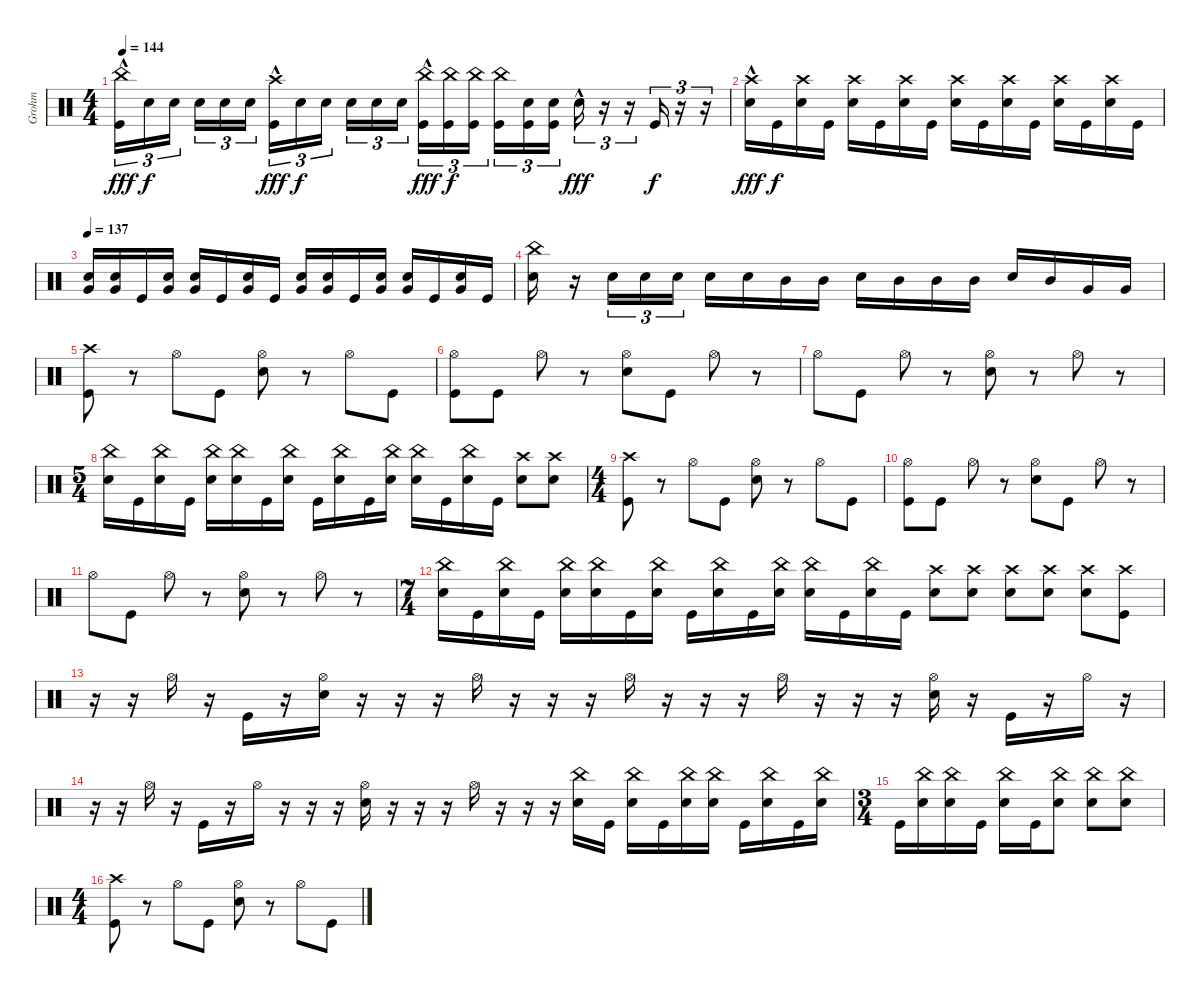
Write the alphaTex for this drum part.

\track ("Grohm" "Grohm") {instrument percussion}
\staff {score}
\articulation defaults
\ts (4 4)
\tempo 144
\clef neutral
\ks c
("China (hit)"{hac} "Kick (hit)"{hac}).16{tu (3 2) dy fff} "Snare (hit) 2".16{tu (3 2) dy f} "Snare (hit) 2".16{tu (3 2) beam splitsecondary} "Snare (hit) 2".16{tu (3 2)} "Snare (hit) 2".16{tu (3 2)} "Snare (hit) 2".16{tu (3 2)} ("Crash high (hit)"{hac} "Kick (hit)"{hac}).16{tu (3 2) dy fff} "Snare (hit) 2".16{tu (3 2) dy f} "Snare (hit) 2".16{tu (3 2) beam splitsecondary} "Snare (hit) 2".16{tu (3 2)} "Snare (hit) 2".16{tu (3 2)} "Snare (hit) 2".16{tu (3 2)} ("China (hit)"{hac} "Kick (hit)"{hac}).16{tu (3 2) dy fff} ("China (hit)" "Kick (hit)").16{tu (3 2) dy f} ("China (hit)" "Kick (hit)").16{tu (3 2) beam splitsecondary} ("China (hit)" "Kick (hit)").16{tu (3 2)} ("Snare (hit) 2" "Kick (hit)").16{tu (3 2)} ("Snare (hit) 2" "Kick (hit)").16{tu (3 2)} "Snare (hit) 2"{hac}.16{tu (3 2) dy fff} r.16{tu (3 2)} r.16{tu (3 2)} "Kick (hit)".16{tu (3 2) dy f} r.16{tu (3 2)} r.16{tu (3 2)} |
("Crash high (hit)"{hac} "Snare (hit) 2").16{dy fff} "Kick (hit)".16{dy f} ("Crash high (hit)" "Snare (hit) 2").16 "Kick (hit)".16 ("Crash high (hit)" "Snare (hit) 2").16 "Kick (hit)".16 ("Crash high (hit)" "Snare (hit) 2").16 "Kick (hit)".16 ("Crash high (hit)" "Snare (hit) 2").16 "Kick (hit)".16 ("Crash high (hit)" "Snare (hit) 2").16 "Kick (hit)".16 ("Crash high (hit)" "Snare (hit) 2").16 "Kick (hit)".16 ("Crash high (hit)" "Snare (hit) 2").16 "Kick (hit)".16 |
\tempo 137
("Snare (hit) 2" "Very Low Tom (hit)").16 ("Snare (hit) 2" "Very Low Tom (hit)").16 "Kick (hit)".16 ("Snare (hit) 2" "Very Low Tom (hit)").16 ("Snare (hit) 2" "Very Low Tom (hit)").16 "Kick (hit)".16 ("Snare (hit) 2" "Very Low Tom (hit)").16 "Kick (hit)".16 ("Snare (hit) 2" "Very Low Tom (hit)").16 ("Snare (hit) 2" "Very Low Tom (hit)").16 "Kick (hit)".16 ("Snare (hit) 2" "Very Low Tom (hit)").16 ("Snare (hit) 2" "Very Low Tom (hit)").16 "Kick (hit)".16 ("Snare (hit) 2" "Very Low Tom (hit)").16 "Kick (hit)".16 |
("China (hit)" "Snare (hit) 2").16 r.16 "Snare (hit) 2".16{tu (3 2)} "Snare (hit) 2".16{tu (3 2)} "Snare (hit) 2".16{tu (3 2)} "Snare (hit) 2".16 "Snare (hit) 2".16 "Mid Tom (hit)".16 "Mid Tom (hit)".16 "Snare (hit) 2".16 "Mid Tom (hit)".16 "Mid Tom (hit)".16 "Mid Tom (hit)".16 "Snare (hit) 2".16 "Mid Tom (hit)".16 "Very Low Tom (hit)".16 "Very Low Tom (hit)".16 |
("Crash high (hit)" "Kick (hit)").8 r.8 "Hi-Hat (open)".8 "Kick (hit)".8 ("Hi-Hat (open)" "Snare (hit) 2").8 r.8 "Hi-Hat (open)".8 "Kick (hit)".8 |
("Hi-Hat (open)" "Kick (hit)").8 "Kick (hit)".8 "Hi-Hat (open)".8 r.8 ("Hi-Hat (open)" "Snare (hit) 2").8 "Kick (hit)".8 "Hi-Hat (open)".8 r.8 |
"Hi-Hat (open)".8 "Kick (hit)".8 "Hi-Hat (open)".8 r.8 ("Hi-Hat (open)" "Snare (hit) 2").8 r.8 "Hi-Hat (open)".8 r.8 |
\ts (5 4)
("China (hit)" "Snare (hit) 2").16 "Kick (hit)".16 ("China (hit)" "Snare (hit) 2").16 "Kick (hit)".16 ("China (hit)" "Snare (hit) 2").16 ("China (hit)" "Snare (hit) 2").16 "Kick (hit)".16 ("China (hit)" "Snare (hit) 2").16 "Kick (hit)".16 ("China (hit)" "Snare (hit) 2").16 "Kick (hit)".16 ("China (hit)" "Snare (hit) 2").16 ("China (hit)" "Snare (hit) 2").16 "Kick (hit)".16 ("China (hit)" "Snare (hit) 2").16 "Kick (hit)".16 ("Crash high (hit)" "Snare (hit) 2").8 ("Crash high (hit)" "Snare (hit) 2").8 |
\ts (4 4)
("Crash high (hit)" "Kick (hit)").8 r.8 "Hi-Hat (open)".8 "Kick (hit)".8 ("Hi-Hat (open)" "Snare (hit) 2").8 r.8 "Hi-Hat (open)".8 "Kick (hit)".8 |
("Hi-Hat (open)" "Kick (hit)").8 "Kick (hit)".8 "Hi-Hat (open)".8 r.8 ("Hi-Hat (open)" "Snare (hit) 2").8 "Kick (hit)".8 "Hi-Hat (open)".8 r.8 |
"Hi-Hat (open)".8 "Kick (hit)".8 "Hi-Hat (open)".8 r.8 ("Hi-Hat (open)" "Snare (hit) 2").8 r.8 "Hi-Hat (open)".8 r.8 |
\ts (7 4)
("China (hit)" "Snare (hit) 2").16 "Kick (hit)".16 ("China (hit)" "Snare (hit) 2").16 "Kick (hit)".16 ("China (hit)" "Snare (hit) 2").16 ("China (hit)" "Snare (hit) 2").16 "Kick (hit)".16 ("China (hit)" "Snare (hit) 2").16 "Kick (hit)".16 ("China (hit)" "Snare (hit) 2").16 "Kick (hit)".16 ("China (hit)" "Snare (hit) 2").16 ("China (hit)" "Snare (hit) 2").16 "Kick (hit)".16 ("China (hit)" "Snare (hit) 2").16 "Kick (hit)".16 ("Crash high (hit)" "Snare (hit) 2").8 ("Crash high (hit)" "Snare (hit) 2").8 ("Crash high (hit)" "Snare (hit) 2").8 ("Crash high (hit)" "Snare (hit) 2").8 ("Crash high (hit)" "Snare (hit) 2").8 ("Crash high (hit)" "Kick (hit)").8 |
r.16 r.16 "Hi-Hat (open)".16 r.16 "Kick (hit)".16 r.16 ("Hi-Hat (open)" "Snare (hit) 2").16 r.16 r.16 r.16 "Hi-Hat (open)".16 r.16 r.16 r.16 "Hi-Hat (open)".16 r.16 r.16 r.16 "Hi-Hat (open)".16 r.16 r.16 r.16 ("Hi-Hat (open)" "Snare (hit) 2").16 r.16 "Kick (hit)".16 r.16 "Hi-Hat (open)".16 r.16 |
r.16 r.16 "Hi-Hat (open)".16 r.16 "Kick (hit)".16 r.16 "Hi-Hat (open)".16 r.16 r.16 r.16 ("Hi-Hat (open)" "Snare (hit) 2").16 r.16 r.16 r.16 "Hi-Hat (open)".16 r.16 r.16 r.16 ("China (hit)" "Snare (hit) 2").16 "Kick (hit)".16 ("China (hit)" "Snare (hit) 2").16 "Kick (hit)".16 ("China (hit)" "Snare (hit) 2").16 ("China (hit)" "Snare (hit) 2").16 "Kick (hit)".16 ("China (hit)" "Snare (hit) 2").16 "Kick (hit)".16 ("China (hit)" "Snare (hit) 2").16 |
\ts (3 4)
"Kick (hit)".16 ("China (hit)" "Snare (hit) 2").16 ("China (hit)" "Snare (hit) 2").16 "Kick (hit)".16 ("China (hit)" "Snare (hit) 2").16 "Kick (hit)".16 ("China (hit)" "Snare (hit) 2").8 ("China (hit)" "Snare (hit) 2").8 ("China (hit)" "Snare (hit) 2").8 |
\ts (4 4)
("Crash high (hit)" "Kick (hit)").8 r.8 "Hi-Hat (open)".8 "Kick (hit)".8 ("Hi-Hat (open)" "Snare (hit) 2").8 r.8 "Hi-Hat (open)".8 "Kick (hit)".8
